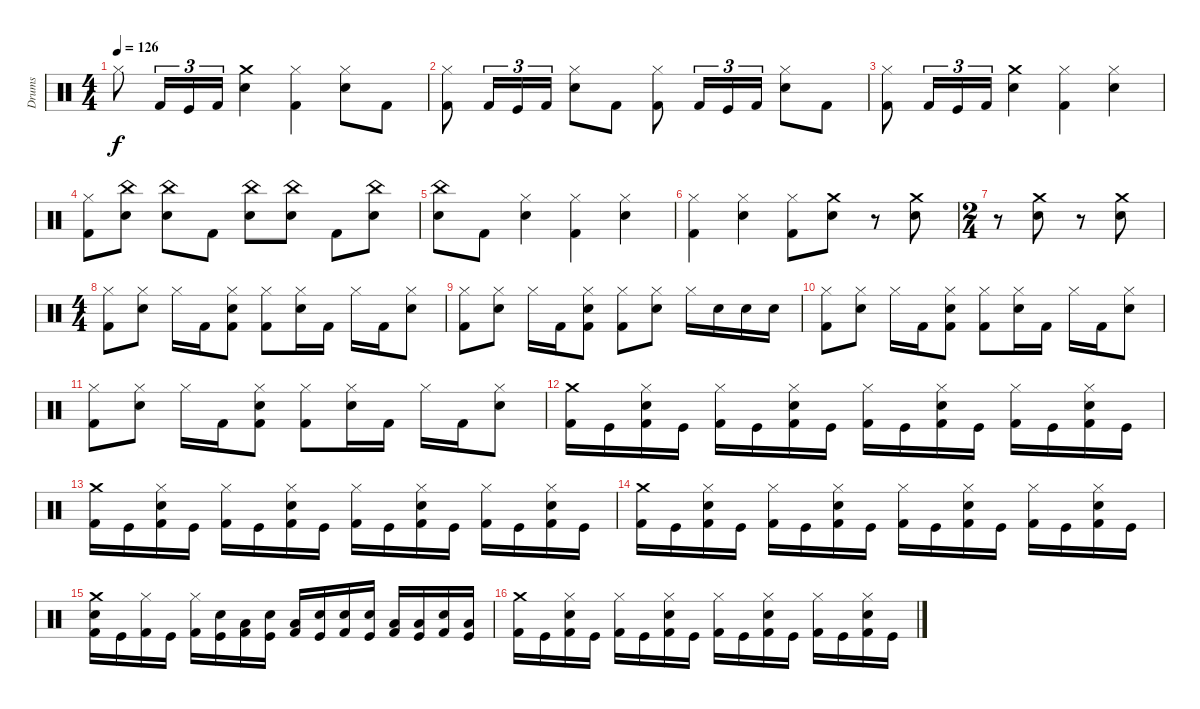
\track ("Drums" "Drums") {instrument percussion}
\staff {score}
\articulation defaults
\ts (4 4)
\tempo 126
\clef neutral
\ks c "Hi-Hat (closed)".8{dy f} "Kick (hit) 2".16{tu (3 2)} "Kick (hit)".16{tu (3 2)} "Kick (hit) 2".16{tu (3 2)}
("Snare (hit) 2" "Crash medium (hit)").4 ("Hi-Hat (closed)" "Kick (hit) 2").4 ("Snare (hit) 2" "Hi-Hat (closed)").8 "Kick (hit) 2".8 |
("Kick (hit) 2" "Hi-Hat (closed)").8 "Kick (hit) 2".16{tu (3 2)} "Kick (hit)".16{tu (3 2)} "Kick (hit) 2".16{tu (3 2)} ("Snare (hit) 2" "Hi-Hat (closed)").8 "Kick (hit) 2".8 ("Kick (hit) 2" "Hi-Hat (closed)").8 "Kick (hit) 2".16{tu (3 2)} "Kick (hit)".16{tu (3 2)} "Kick (hit) 2".16{tu (3 2)} ("Snare (hit) 2" "Hi-Hat (closed)").8 "Kick (hit) 2".8 |
("Hi-Hat (closed)" "Kick (hit) 2").8 "Kick (hit) 2".16{tu (3 2)} "Kick (hit)".16{tu (3 2)} "Kick (hit) 2".16{tu (3 2)} ("Snare (hit) 2" "Crash medium (hit)").4 ("Kick (hit) 2" "Hi-Hat (closed)").4 ("Hi-Hat (closed)" "Snare (hit) 2").4 |
("Hi-Hat (closed)" "Kick (hit) 2").8 ("China (hit)" "Snare (hit) 2").8 ("Snare (hit) 2" "China (hit)").8 "Kick (hit) 2".8 ("Snare (hit) 2" "China (hit)").8 ("Snare (hit) 2" "China (hit)").8 "Kick (hit) 2".8 ("Snare (hit) 2" "China (hit)").8 |
("China (hit)" "Snare (hit) 2").8 "Kick (hit) 2".8 ("Snare (hit) 2" "Hi-Hat (closed)").4 ("Hi-Hat (closed)" "Kick (hit) 2").4 ("Snare (hit) 2" "Hi-Hat (closed)").4 |
("Kick (hit) 2" "Hi-Hat (closed)").4 ("Hi-Hat (closed)" "Snare (hit) 2").4 ("Hi-Hat (closed)" "Kick (hit) 2").8 ("Crash medium (hit)" "Snare (hit) 2").8 r.8 ("Snare (hit) 2" "Crash medium (hit)").8 |
\ts (2 4)
r.8 ("Crash medium (hit)" "Snare (hit) 2").8 r.8 ("Crash medium (hit)" "Snare (hit) 2").8 |
\ts (4 4)
("Hi-Hat (closed)" "Kick (hit) 2").8 ("Snare (hit) 2" "Hi-Hat (closed)").8 "Hi-Hat (closed)".16 "Kick (hit) 2".16 ("Snare (hit) 2" "Hi-Hat (closed)" "Kick (hit) 2").8 ("Hi-Hat (closed)" "Kick (hit) 2").8 ("Snare (hit) 2" "Hi-Hat (closed)").16 "Kick (hit) 2".16 "Hi-Hat (closed)".16 "Kick (hit) 2".16 ("Snare (hit) 2" "Hi-Hat (closed)").8 |
("Kick (hit) 2" "Hi-Hat (closed)").8 ("Snare (hit) 2" "Hi-Hat (closed)").8 "Hi-Hat (closed)".16 "Kick (hit) 2".16 ("Kick (hit) 2" "Snare (hit) 2" "Hi-Hat (closed)").8 ("Hi-Hat (closed)" "Kick (hit) 2").8 ("Snare (hit) 2" "Hi-Hat (closed)").8 "Hi-Hat (closed)".16 "Snare (hit) 2".16 "Snare (hit) 2".16 "Snare (hit) 2".16 |
("Kick (hit) 2" "Hi-Hat (closed)").8 ("Snare (hit) 2" "Hi-Hat (closed)").8 "Hi-Hat (closed)".16 "Kick (hit) 2".16 ("Kick (hit) 2" "Snare (hit) 2" "Hi-Hat (closed)").8 ("Kick (hit) 2" "Hi-Hat (closed)").8 ("Snare (hit) 2" "Hi-Hat (closed)").16 "Kick (hit) 2".16 "Hi-Hat (closed)".16 "Kick (hit) 2".16 ("Hi-Hat (closed)" "Snare (hit) 2").8 |
("Kick (hit) 2" "Hi-Hat (closed)").8 ("Snare (hit) 2" "Hi-Hat (closed)").8 "Hi-Hat (closed)".16 "Kick (hit) 2".16 ("Kick (hit) 2" "Snare (hit) 2" "Hi-Hat (closed)").8 ("Kick (hit) 2" "Hi-Hat (closed)").8 ("Snare (hit) 2" "Hi-Hat (closed)").16 "Kick (hit) 2".16 "Hi-Hat (closed)".16 "Kick (hit) 2".16 ("Hi-Hat (closed)" "Snare (hit) 2").8 |
("Crash medium (hit)" "Kick (hit) 2").16 "Kick (hit)".16 ("Snare (hit) 2" "Hi-Hat (closed)" "Kick (hit) 2").16 "Kick (hit)".16 ("Hi-Hat (closed)" "Kick (hit) 2").16 "Kick (hit)".16 ("Snare (hit) 2" "Hi-Hat (closed)" "Kick (hit) 2").16 "Kick (hit)".16 ("Hi-Hat (closed)" "Kick (hit) 2").16 "Kick (hit)".16 ("Snare (hit) 2" "Hi-Hat (closed)" "Kick (hit) 2").16 "Kick (hit)".16 ("Hi-Hat (closed)" "Kick (hit) 2").16 "Kick (hit)".16 ("Snare (hit) 2" "Hi-Hat (closed)" "Kick (hit) 2").16 "Kick (hit)".16 |
("Crash medium (hit)" "Kick (hit) 2").16 "Kick (hit)".16 ("Snare (hit) 2" "Hi-Hat (closed)" "Kick (hit) 2").16 "Kick (hit)".16 ("Hi-Hat (closed)" "Kick (hit) 2").16 "Kick (hit)".16 ("Snare (hit) 2" "Hi-Hat (closed)" "Kick (hit) 2").16 "Kick (hit)".16 ("Hi-Hat (closed)" "Kick (hit) 2").16 "Kick (hit)".16 ("Snare (hit) 2" "Hi-Hat (closed)" "Kick (hit) 2").16 "Kick (hit)".16 ("Hi-Hat (closed)" "Kick (hit) 2").16 "Kick (hit)".16 ("Snare (hit) 2" "Hi-Hat (closed)" "Kick (hit) 2").16 "Kick (hit)".16 |
("Crash medium (hit)" "Kick (hit) 2").16 "Kick (hit)".16 ("Snare (hit) 2" "Hi-Hat (closed)" "Kick (hit) 2").16 "Kick (hit)".16 ("Hi-Hat (closed)" "Kick (hit) 2").16 "Kick (hit)".16 ("Snare (hit) 2" "Hi-Hat (closed)" "Kick (hit) 2").16 "Kick (hit)".16 ("Hi-Hat (closed)" "Kick (hit) 2").16 "Kick (hit)".16 ("Snare (hit) 2" "Hi-Hat (closed)" "Kick (hit) 2").16 "Kick (hit)".16 ("Hi-Hat (closed)" "Kick (hit) 2").16 "Kick (hit)".16 ("Snare (hit) 2" "Hi-Hat (closed)" "Kick (hit) 2").16 "Kick (hit)".16 |
("Snare (hit) 2" "Crash medium (hit)" "Kick (hit) 2").16 "Kick (hit)".16 ("Hi-Hat (closed)" "Kick (hit) 2").16 "Kick (hit)".16 ("Hi-Hat (closed)" "Kick (hit) 2").16 ("Snare (hit) 2" "Kick (hit)").16 ("Low Tom (hit)" "Kick (hit) 2").16 ("Snare (hit) 2" "Kick (hit)").16 ("Low Tom (hit)" "Kick (hit) 2").16 ("Snare (hit) 2" "Kick (hit)").16 ("Snare (hit) 2" "Kick (hit) 2").16 ("Snare (hit) 2" "Kick (hit)").16 ("Low Tom (hit)" "Kick (hit) 2").16 ("Low Tom (hit)" "Kick (hit)").16 ("Snare (hit) 2" "Kick (hit) 2").16 ("Low Tom (hit)" "Kick (hit)").16 |
("Crash medium (hit)" "Kick (hit) 2").16 "Kick (hit)".16 ("Snare (hit) 2" "Hi-Hat (closed)" "Kick (hit) 2").16 "Kick (hit)".16 ("Hi-Hat (closed)" "Kick (hit) 2").16 "Kick (hit)".16 ("Snare (hit) 2" "Hi-Hat (closed)" "Kick (hit) 2").16 "Kick (hit)".16 ("Hi-Hat (closed)" "Kick (hit) 2").16 "Kick (hit)".16 ("Snare (hit) 2" "Hi-Hat (closed)" "Kick (hit) 2").16 "Kick (hit)".16 ("Hi-Hat (closed)" "Kick (hit) 2").16 "Kick (hit)".16 ("Snare (hit) 2" "Hi-Hat (closed)" "Kick (hit) 2").16 "Kick (hit)".16
